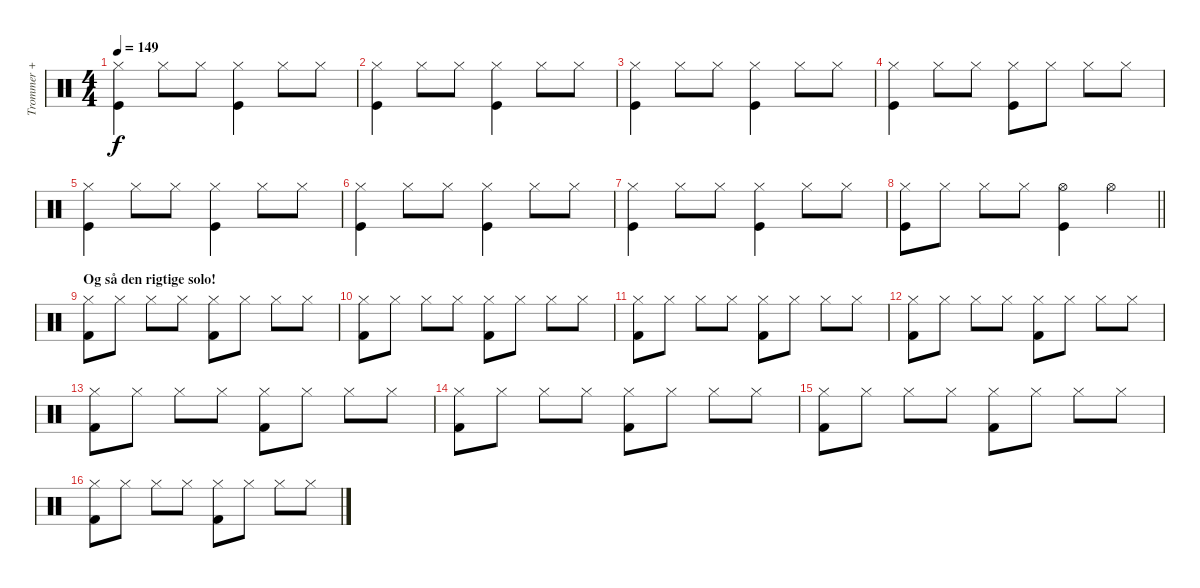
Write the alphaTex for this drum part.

\track ("Trommer + rasle-æg" "Trommer + ") {instrument percussion}
\staff {score}
\articulation defaults
\ts (4 4)
\tempo 149
\clef neutral
\ks c
("Hi-Hat (closed)" "Kick (hit)").4{dy f} "Hi-Hat (closed)".8 "Hi-Hat (closed)".8 ("Hi-Hat (closed)" "Kick (hit)").4 "Hi-Hat (closed)".8 "Hi-Hat (closed)".8 |
("Hi-Hat (closed)" "Kick (hit)").4 "Hi-Hat (closed)".8 "Hi-Hat (closed)".8 ("Hi-Hat (closed)" "Kick (hit)").4 "Hi-Hat (closed)".8 "Hi-Hat (closed)".8 |
("Hi-Hat (closed)" "Kick (hit)").4 "Hi-Hat (closed)".8 "Hi-Hat (closed)".8 ("Hi-Hat (closed)" "Kick (hit)").4 "Hi-Hat (closed)".8 "Hi-Hat (closed)".8 |
("Hi-Hat (closed)" "Kick (hit)").4 "Hi-Hat (closed)".8 "Hi-Hat (closed)".8 ("Hi-Hat (closed)" "Kick (hit)").8 "Hi-Hat (closed)".8 "Hi-Hat (closed)".8 "Hi-Hat (closed)".8 |
("Hi-Hat (closed)" "Kick (hit)").4 "Hi-Hat (closed)".8 "Hi-Hat (closed)".8 ("Hi-Hat (closed)" "Kick (hit)").4 "Hi-Hat (closed)".8 "Hi-Hat (closed)".8 |
("Hi-Hat (closed)" "Kick (hit)").4 "Hi-Hat (closed)".8 "Hi-Hat (closed)".8 ("Hi-Hat (closed)" "Kick (hit)").4 "Hi-Hat (closed)".8 "Hi-Hat (closed)".8 |
("Hi-Hat (closed)" "Kick (hit)").4 "Hi-Hat (closed)".8 "Hi-Hat (closed)".8 ("Hi-Hat (closed)" "Kick (hit)").4 "Hi-Hat (closed)".8 "Hi-Hat (closed)".8 |
\barLineRight lightlight
("Hi-Hat (closed)" "Kick (hit)").8 "Hi-Hat (closed)".8 "Hi-Hat (closed)".8 "Hi-Hat (closed)".8 ("Hi-Hat (open)" "Kick (hit)").4 "Hi-Hat (open)".4 |
\section ("" "Og så den rigtige solo!")
("Hi-Hat (closed)" "Kick (hit) 2").8 "Hi-Hat (closed)".8 "Hi-Hat (closed)".8 "Hi-Hat (closed)".8 ("Hi-Hat (closed)" "Kick (hit) 2").8 "Hi-Hat (closed)".8 "Hi-Hat (closed)".8 "Hi-Hat (closed)".8 |
("Hi-Hat (closed)" "Kick (hit) 2").8 "Hi-Hat (closed)".8 "Hi-Hat (closed)".8 "Hi-Hat (closed)".8 ("Hi-Hat (closed)" "Kick (hit) 2").8 "Hi-Hat (closed)".8 "Hi-Hat (closed)".8 "Hi-Hat (closed)".8 |
("Hi-Hat (closed)" "Kick (hit) 2").8 "Hi-Hat (closed)".8 "Hi-Hat (closed)".8 "Hi-Hat (closed)".8 ("Hi-Hat (closed)" "Kick (hit) 2").8 "Hi-Hat (closed)".8 "Hi-Hat (closed)".8 "Hi-Hat (closed)".8 |
("Hi-Hat (closed)" "Kick (hit) 2").8 "Hi-Hat (closed)".8 "Hi-Hat (closed)".8 "Hi-Hat (closed)".8 ("Hi-Hat (closed)" "Kick (hit) 2").8 "Hi-Hat (closed)".8 "Hi-Hat (closed)".8 "Hi-Hat (closed)".8 |
("Hi-Hat (closed)" "Kick (hit) 2").8 "Hi-Hat (closed)".8 "Hi-Hat (closed)".8 "Hi-Hat (closed)".8 ("Hi-Hat (closed)" "Kick (hit) 2").8 "Hi-Hat (closed)".8 "Hi-Hat (closed)".8 "Hi-Hat (closed)".8 |
("Hi-Hat (closed)" "Kick (hit) 2").8 "Hi-Hat (closed)".8 "Hi-Hat (closed)".8 "Hi-Hat (closed)".8 ("Hi-Hat (closed)" "Kick (hit) 2").8 "Hi-Hat (closed)".8 "Hi-Hat (closed)".8 "Hi-Hat (closed)".8 |
("Hi-Hat (closed)" "Kick (hit) 2").8 "Hi-Hat (closed)".8 "Hi-Hat (closed)".8 "Hi-Hat (closed)".8 ("Hi-Hat (closed)" "Kick (hit) 2").8 "Hi-Hat (closed)".8 "Hi-Hat (closed)".8 "Hi-Hat (closed)".8 |
("Hi-Hat (closed)" "Kick (hit) 2").8 "Hi-Hat (closed)".8 "Hi-Hat (closed)".8 "Hi-Hat (closed)".8 ("Hi-Hat (closed)" "Kick (hit) 2").8 "Hi-Hat (closed)".8 "Hi-Hat (closed)".8 "Hi-Hat (closed)".8
